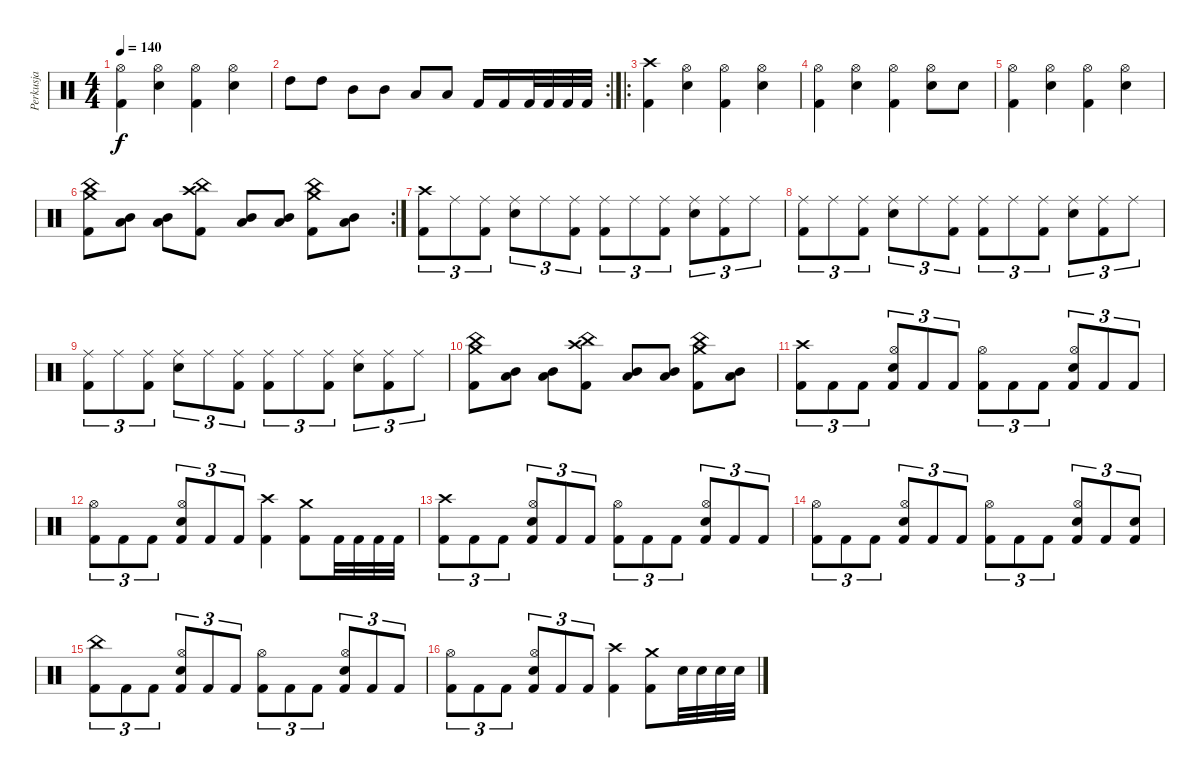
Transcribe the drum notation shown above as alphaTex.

\track ("Perkusja" "Perkusja") {instrument percussion}
\staff {score}
\articulation defaults
\ts (4 4)
\tempo 140
\clef neutral
\ks c
("Kick (hit) 2" "Hi-Hat (open)").4{dy f} ("Snare (hit) 2" "Hi-Hat (open)").4 ("Kick (hit) 2" "Hi-Hat (open)").4 ("Snare (hit) 2" "Hi-Hat (open)").4 |
\rc 2 "High Tom (hit)".8 "High Tom (hit)".8 "Mid Tom (hit)".8 "Mid Tom (hit)".8 "Low Tom (hit)".8 "Low Tom (hit)".8 "Kick (hit) 2".16 "Kick (hit) 2".16 "Kick (hit) 2".32 "Kick (hit) 2".32 "Kick (hit) 2".32 "Kick (hit) 2".32
|
\ro
("Kick (hit) 2" "Crash high (hit)").4 ("Snare (hit) 2" "Hi-Hat (open)").4 ("Kick (hit) 2" "Hi-Hat (open)").4 ("Snare (hit) 2" "Hi-Hat (open)").4 |
("Kick (hit) 2" "Hi-Hat (open)").4 ("Snare (hit) 2" "Hi-Hat (open)").4 ("Kick (hit) 2" "Hi-Hat (open)").4 ("Snare (hit) 2" "Hi-Hat (open)").8 "Snare (hit) 2".8 |
("Kick (hit) 2" "Hi-Hat (open)").4 ("Snare (hit) 2" "Hi-Hat (open)").4 ("Kick (hit) 2" "Hi-Hat (open)").4 ("Snare (hit) 2" "Hi-Hat (open)").4 |
\rc 2
("Kick (hit) 2" "Crash medium (hit)" "China (hit)").8 ("Low Tom (hit)" "Mid Tom (hit)").8 ("Low Tom (hit)" "Mid Tom (hit)").8 ("Kick (hit) 2" "Crash high (hit)" "China (hit)").8 ("Low Tom (hit)" "Mid Tom (hit)").8 ("Low Tom (hit)" "Mid Tom (hit)").8 ("Kick (hit) 2" "Crash medium (hit)" "China (hit)").8 ("Low Tom (hit)" "Mid Tom (hit)").8 |
("Kick (hit) 2" "Crash high (hit)").8{tu (3 2)} "Ride (middle)".8{tu (3 2)} ("Kick (hit) 2" "Ride (middle)").8{tu (3 2)} ("Snare (hit) 2" "Ride (middle)").8{tu (3 2)} "Ride (middle)".8{tu (3 2)} ("Kick (hit) 2" "Ride (middle)").8{tu (3 2)} ("Kick (hit) 2" "Ride (middle)").8{tu (3 2)} "Ride (middle)".8{tu (3 2)} ("Kick (hit) 2" "Ride (middle)").8{tu (3 2)} ("Snare (hit) 2" "Ride (middle)").8{tu (3 2)} ("Kick (hit) 2" "Ride (middle)").8{tu (3 2)} "Ride (middle)".8{tu (3 2)} |
("Kick (hit) 2" "Ride (middle)").8{tu (3 2)} "Ride (middle)".8{tu (3 2)} ("Kick (hit) 2" "Ride (middle)").8{tu (3 2)} ("Snare (hit) 2" "Ride (middle)").8{tu (3 2)} "Ride (middle)".8{tu (3 2)} ("Kick (hit) 2" "Ride (middle)").8{tu (3 2)} ("Kick (hit) 2" "Ride (middle)").8{tu (3 2)} "Ride (middle)".8{tu (3 2)} ("Kick (hit) 2" "Ride (middle)").8{tu (3 2)} ("Snare (hit) 2" "Ride (middle)").8{tu (3 2)} ("Kick (hit) 2" "Ride (middle)").8{tu (3 2)} "Ride (middle)".8{tu (3 2)} |
("Kick (hit) 2" "Ride (middle)").8{tu (3 2)} "Ride (middle)".8{tu (3 2)} ("Kick (hit) 2" "Ride (middle)").8{tu (3 2)} ("Snare (hit) 2" "Ride (middle)").8{tu (3 2)} "Ride (middle)".8{tu (3 2)} ("Kick (hit) 2" "Ride (middle)").8{tu (3 2)} ("Kick (hit) 2" "Ride (middle)").8{tu (3 2)} "Ride (middle)".8{tu (3 2)} ("Kick (hit) 2" "Ride (middle)").8{tu (3 2)} ("Snare (hit) 2" "Ride (middle)").8{tu (3 2)} ("Kick (hit) 2" "Ride (middle)").8{tu (3 2)} "Ride (middle)".8{tu (3 2)} |
("Kick (hit) 2" "Crash medium (hit)" "China (hit)").8 ("Low Tom (hit)" "Mid Tom (hit)").8 ("Low Tom (hit)" "Mid Tom (hit)").8 ("Kick (hit) 2" "Crash high (hit)" "China (hit)").8 ("Low Tom (hit)" "Mid Tom (hit)").8 ("Low Tom (hit)" "Mid Tom (hit)").8 ("Kick (hit) 2" "Crash medium (hit)" "China (hit)").8 ("Low Tom (hit)" "Mid Tom (hit)").8 |
("Kick (hit) 2" "Crash high (hit)").8{tu (3 2)} "Kick (hit) 2".8{tu (3 2)} "Kick (hit) 2".8{tu (3 2)} ("Kick (hit) 2" "Snare (hit) 2" "Hi-Hat (open)").8{tu (3 2)} "Kick (hit) 2".8{tu (3 2)} "Kick (hit) 2".8{tu (3 2)} ("Kick (hit) 2" "Hi-Hat (open)").8{tu (3 2)} "Kick (hit) 2".8{tu (3 2)} "Kick (hit) 2".8{tu (3 2)} ("Kick (hit) 2" "Snare (hit) 2" "Hi-Hat (open)").8{tu (3 2)} "Kick (hit) 2".8{tu (3 2)} "Kick (hit) 2".8{tu (3 2)} |
("Kick (hit) 2" "Hi-Hat (open)").8{tu (3 2)} "Kick (hit) 2".8{tu (3 2)} "Kick (hit) 2".8{tu (3 2)} ("Kick (hit) 2" "Snare (hit) 2" "Hi-Hat (open)").8{tu (3 2)} "Kick (hit) 2".8{tu (3 2)} "Kick (hit) 2".8{tu (3 2)} ("Kick (hit) 2" "Crash high (hit)").4 ("Kick (hit) 2" "Crash medium (hit)").8 "Kick (hit) 2".32 "Kick (hit) 2".32 "Kick (hit) 2".32 "Kick (hit) 2".32 |
("Kick (hit) 2" "Crash high (hit)").8{tu (3 2)} "Kick (hit) 2".8{tu (3 2)} "Kick (hit) 2".8{tu (3 2)} ("Kick (hit) 2" "Snare (hit) 2" "Hi-Hat (open)").8{tu (3 2)} "Kick (hit) 2".8{tu (3 2)} "Kick (hit) 2".8{tu (3 2)} ("Kick (hit) 2" "Hi-Hat (open)").8{tu (3 2)} "Kick (hit) 2".8{tu (3 2)} "Kick (hit) 2".8{tu (3 2)} ("Kick (hit) 2" "Snare (hit) 2" "Hi-Hat (open)").8{tu (3 2)} "Kick (hit) 2".8{tu (3 2)} "Kick (hit) 2".8{tu (3 2)} |
("Kick (hit) 2" "Hi-Hat (open)").8{tu (3 2)} "Kick (hit) 2".8{tu (3 2)} "Kick (hit) 2".8{tu (3 2)} ("Kick (hit) 2" "Snare (hit) 2" "Hi-Hat (open)").8{tu (3 2)} "Kick (hit) 2".8{tu (3 2)} "Kick (hit) 2".8{tu (3 2)} ("Kick (hit) 2" "Hi-Hat (open)").8{tu (3 2)} "Kick (hit) 2".8{tu (3 2)} "Kick (hit) 2".8{tu (3 2)} ("Kick (hit) 2" "Snare (hit) 2" "Hi-Hat (open)").8{tu (3 2)} "Kick (hit) 2".8{tu (3 2)} ("Kick (hit) 2" "Snare (hit) 2").8{tu (3 2)} |
("Kick (hit) 2" "China (hit)").8{tu (3 2)} "Kick (hit) 2".8{tu (3 2)} "Kick (hit) 2".8{tu (3 2)} ("Kick (hit) 2" "Snare (hit) 2" "Hi-Hat (open)").8{tu (3 2)} "Kick (hit) 2".8{tu (3 2)} "Kick (hit) 2".8{tu (3 2)} ("Kick (hit) 2" "Hi-Hat (open)").8{tu (3 2)} "Kick (hit) 2".8{tu (3 2)} "Kick (hit) 2".8{tu (3 2)} ("Kick (hit) 2" "Snare (hit) 2" "Hi-Hat (open)").8{tu (3 2)} "Kick (hit) 2".8{tu (3 2)} "Kick (hit) 2".8{tu (3 2)} |
("Kick (hit) 2" "Hi-Hat (open)").8{tu (3 2)} "Kick (hit) 2".8{tu (3 2)} "Kick (hit) 2".8{tu (3 2)} ("Kick (hit) 2" "Snare (hit) 2" "Hi-Hat (open)").8{tu (3 2)} "Kick (hit) 2".8{tu (3 2)} "Kick (hit) 2".8{tu (3 2)} ("Kick (hit) 2" "Crash high (hit)").4 ("Kick (hit) 2" "Crash medium (hit)").8 "Snare (hit) 2".32 "Snare (hit) 2".32 "Snare (hit) 2".32 "Snare (hit) 2".32
